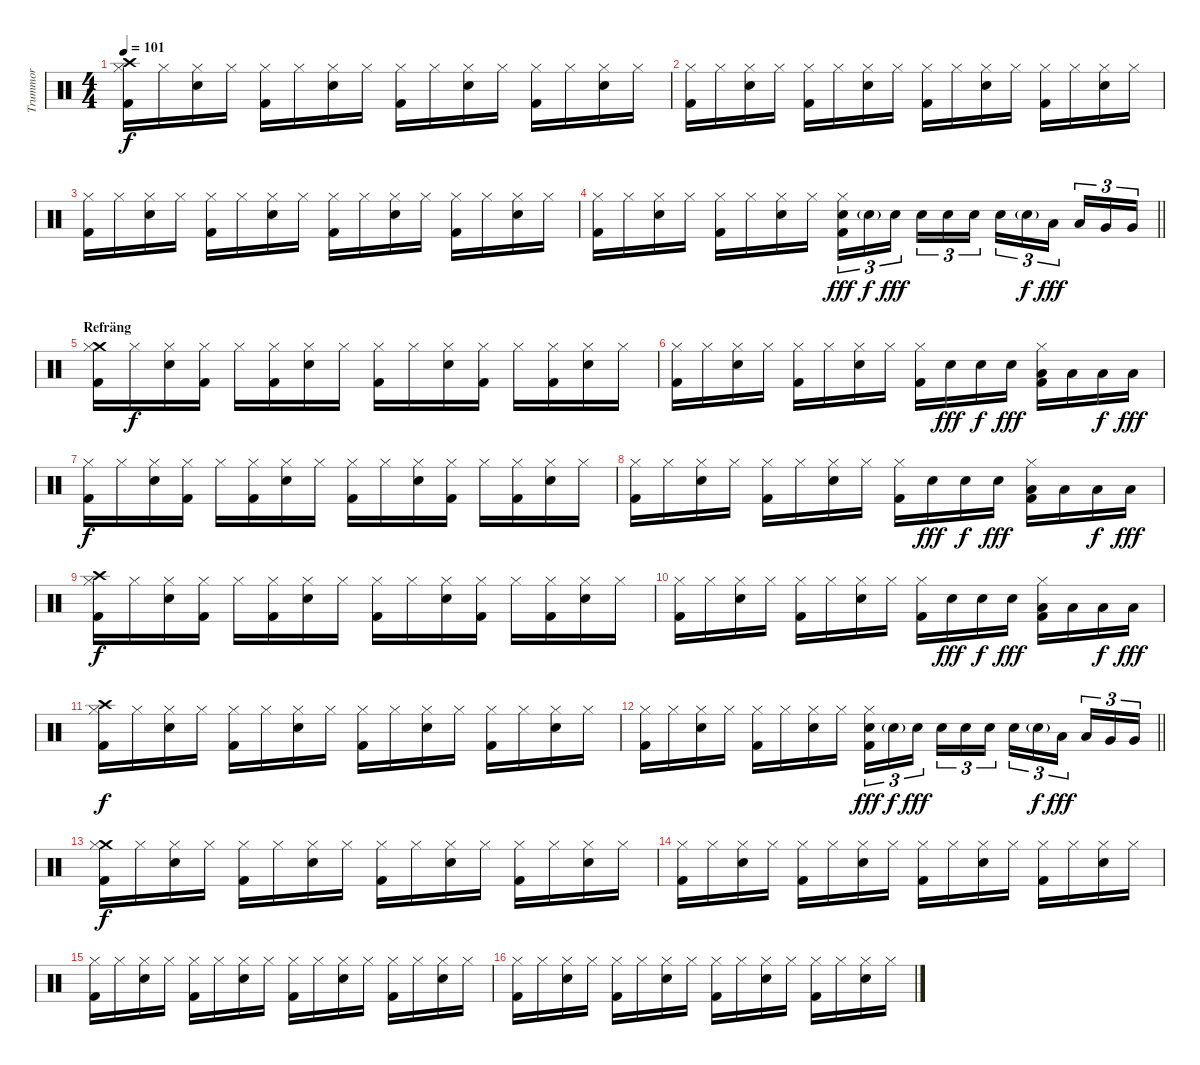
\track ("Trummor" "Trummor") {instrument percussion}
\staff {score}
\articulation defaults
\ts (4 4)
\tempo 101
\clef neutral
\ks c
("Crash high (hit)" "Hi-Hat (closed)" "Kick (hit) 2").16{dy f} "Hi-Hat (closed)".16 ("Hi-Hat (closed)" "Electric Snare (hit)").16 "Hi-Hat (closed)".16 ("Hi-Hat (closed)" "Kick (hit) 2").16 "Hi-Hat (closed)".16 ("Hi-Hat (closed)" "Electric Snare (hit)").16 "Hi-Hat (closed)".16 ("Hi-Hat (closed)" "Kick (hit) 2").16 "Hi-Hat (closed)".16 ("Hi-Hat (closed)" "Electric Snare (hit)").16 "Hi-Hat (closed)".16 ("Hi-Hat (closed)" "Kick (hit) 2").16 "Hi-Hat (closed)".16 ("Hi-Hat (closed)" "Electric Snare (hit)").16 "Hi-Hat (closed)".16 |
("Hi-Hat (closed)" "Kick (hit) 2").16 "Hi-Hat (closed)".16 ("Hi-Hat (closed)" "Electric Snare (hit)").16 "Hi-Hat (closed)".16 ("Hi-Hat (closed)" "Kick (hit) 2").16 "Hi-Hat (closed)".16 ("Hi-Hat (closed)" "Electric Snare (hit)").16 "Hi-Hat (closed)".16 ("Hi-Hat (closed)" "Kick (hit) 2").16 "Hi-Hat (closed)".16 ("Hi-Hat (closed)" "Electric Snare (hit)").16 "Hi-Hat (closed)".16 ("Hi-Hat (closed)" "Kick (hit) 2").16 "Hi-Hat (closed)".16 ("Hi-Hat (closed)" "Electric Snare (hit)").16 "Hi-Hat (closed)".16 |
("Hi-Hat (closed)" "Kick (hit) 2").16 "Hi-Hat (closed)".16 ("Hi-Hat (closed)" "Electric Snare (hit)").16 "Hi-Hat (closed)".16 ("Hi-Hat (closed)" "Kick (hit) 2").16 "Hi-Hat (closed)".16 ("Hi-Hat (closed)" "Electric Snare (hit)").16 "Hi-Hat (closed)".16 ("Hi-Hat (closed)" "Kick (hit) 2").16 "Hi-Hat (closed)".16 ("Hi-Hat (closed)" "Electric Snare (hit)").16 "Hi-Hat (closed)".16 ("Hi-Hat (closed)" "Kick (hit) 2").16 "Hi-Hat (closed)".16 ("Hi-Hat (closed)" "Electric Snare (hit)").16 "Hi-Hat (closed)".16 |
\barLineRight lightlight
("Hi-Hat (closed)" "Kick (hit) 2").16 "Hi-Hat (closed)".16 ("Hi-Hat (closed)" "Electric Snare (hit)").16 "Hi-Hat (closed)".16 ("Hi-Hat (closed)" "Kick (hit) 2").16 "Hi-Hat (closed)".16 ("Hi-Hat (closed)" "Electric Snare (hit)").16 "Hi-Hat (closed)".16 ("Electric Snare (hit)" "Hi-Hat (closed)" "Kick (hit) 2").16{tu (3 2) dy fff} "Electric Snare (hit)"{g}.16{tu (3 2) dy f} "Electric Snare (hit)".16{tu (3 2) dy fff beam splitsecondary} "Electric Snare (hit)".16{tu (3 2)} "Electric Snare (hit)".16{tu (3 2)} "Electric Snare (hit)".16{tu (3 2)} "Snare (hit) 2".16{tu (3 2)} "Electric Snare (hit)"{g}.16{tu (3 2) dy f} "Low Tom (hit)".16{tu (3 2) dy fff beam splitsecondary} "Low Tom (hit)".16{tu (3 2)} "Very Low Tom (hit)".16{tu (3 2)} "Very Low Tom (hit)".16{tu (3 2)} |
\section ("" "Refräng")
("Crash medium (hit)" "Hi-Hat (closed)" "Kick (hit) 2").16 "Hi-Hat (closed)".16{dy f} ("Hi-Hat (closed)" "Electric Snare (hit)").16 ("Hi-Hat (closed)" "Kick (hit) 2").16 "Hi-Hat (closed)".16 ("Hi-Hat (closed)" "Kick (hit) 2").16 ("Hi-Hat (closed)" "Electric Snare (hit)").16 "Hi-Hat (closed)".16 ("Hi-Hat (closed)" "Kick (hit) 2").16 "Hi-Hat (closed)".16 ("Hi-Hat (closed)" "Electric Snare (hit)").16 ("Hi-Hat (closed)" "Kick (hit) 2").16 "Hi-Hat (closed)".16 ("Hi-Hat (closed)" "Kick (hit) 2").16 ("Hi-Hat (closed)" "Electric Snare (hit)").16 "Hi-Hat (closed)".16 |
("Hi-Hat (closed)" "Kick (hit) 2").16 "Hi-Hat (closed)".16 ("Hi-Hat (closed)" "Electric Snare (hit)").16 "Hi-Hat (closed)".16 ("Hi-Hat (closed)" "Kick (hit) 2").16 "Hi-Hat (closed)".16 ("Hi-Hat (closed)" "Electric Snare (hit)").16 "Hi-Hat (closed)".16 ("Hi-Hat (closed)" "Kick (hit) 2").16 "Electric Snare (hit)".16{dy fff} "Electric Snare (hit)".16{dy f} "Electric Snare (hit)".16{dy fff} ("Hi-Hat (closed)" "Low Tom (hit)" "Kick (hit) 2").16 "Low Tom (hit)".16 "Low Tom (hit)".16{dy f} "Low Tom (hit)".16{dy fff} |
("Hi-Hat (closed)" "Kick (hit) 2").16{dy f} "Hi-Hat (closed)".16 ("Hi-Hat (closed)" "Electric Snare (hit)").16 ("Hi-Hat (closed)" "Kick (hit) 2").16 "Hi-Hat (closed)".16 ("Hi-Hat (closed)" "Kick (hit) 2").16 ("Hi-Hat (closed)" "Electric Snare (hit)").16 "Hi-Hat (closed)".16 ("Hi-Hat (closed)" "Kick (hit) 2").16 "Hi-Hat (closed)".16 ("Hi-Hat (closed)" "Electric Snare (hit)").16 ("Hi-Hat (closed)" "Kick (hit) 2").16 "Hi-Hat (closed)".16 ("Hi-Hat (closed)" "Kick (hit) 2").16 ("Hi-Hat (closed)" "Electric Snare (hit)").16 "Hi-Hat (closed)".16 |
("Hi-Hat (closed)" "Kick (hit) 2").16 "Hi-Hat (closed)".16 ("Hi-Hat (closed)" "Electric Snare (hit)").16 "Hi-Hat (closed)".16 ("Hi-Hat (closed)" "Kick (hit) 2").16 "Hi-Hat (closed)".16 ("Hi-Hat (closed)" "Electric Snare (hit)").16 "Hi-Hat (closed)".16 ("Hi-Hat (closed)" "Kick (hit) 2").16 "Electric Snare (hit)".16{dy fff} "Electric Snare (hit)".16{dy f} "Electric Snare (hit)".16{dy fff} ("Hi-Hat (closed)" "Low Tom (hit)" "Kick (hit) 2").16 "Low Tom (hit)".16 "Low Tom (hit)".16{dy f} "Low Tom (hit)".16{dy fff} |
("Crash high (hit)" "Hi-Hat (closed)" "Kick (hit) 2").16{dy f} "Hi-Hat (closed)".16 ("Hi-Hat (closed)" "Electric Snare (hit)").16 ("Hi-Hat (closed)" "Kick (hit) 2").16 "Hi-Hat (closed)".16 ("Hi-Hat (closed)" "Kick (hit) 2").16 ("Hi-Hat (closed)" "Electric Snare (hit)").16 "Hi-Hat (closed)".16 ("Hi-Hat (closed)" "Kick (hit) 2").16 "Hi-Hat (closed)".16 ("Hi-Hat (closed)" "Electric Snare (hit)").16 ("Hi-Hat (closed)" "Kick (hit) 2").16 "Hi-Hat (closed)".16 ("Hi-Hat (closed)" "Kick (hit) 2").16 ("Hi-Hat (closed)" "Electric Snare (hit)").16 "Hi-Hat (closed)".16 |
("Hi-Hat (closed)" "Kick (hit) 2").16 "Hi-Hat (closed)".16 ("Hi-Hat (closed)" "Electric Snare (hit)").16 "Hi-Hat (closed)".16 ("Hi-Hat (closed)" "Kick (hit) 2").16 "Hi-Hat (closed)".16 ("Hi-Hat (closed)" "Electric Snare (hit)").16 "Hi-Hat (closed)".16 ("Hi-Hat (closed)" "Kick (hit) 2").16 "Electric Snare (hit)".16{dy fff} "Electric Snare (hit)".16{dy f} "Electric Snare (hit)".16{dy fff} ("Hi-Hat (closed)" "Low Tom (hit)" "Kick (hit) 2").16 "Low Tom (hit)".16 "Low Tom (hit)".16{dy f} "Low Tom (hit)".16{dy fff} |
("Crash high (hit)" "Hi-Hat (closed)" "Kick (hit) 2").16{dy f} "Hi-Hat (closed)".16 ("Hi-Hat (closed)" "Electric Snare (hit)").16 "Hi-Hat (closed)".16 ("Hi-Hat (closed)" "Kick (hit) 2").16 "Hi-Hat (closed)".16 ("Hi-Hat (closed)" "Electric Snare (hit)").16 "Hi-Hat (closed)".16 ("Hi-Hat (closed)" "Kick (hit) 2").16 "Hi-Hat (closed)".16 ("Hi-Hat (closed)" "Electric Snare (hit)").16 "Hi-Hat (closed)".16 ("Hi-Hat (closed)" "Kick (hit) 2").16 "Hi-Hat (closed)".16 ("Hi-Hat (closed)" "Electric Snare (hit)").16 "Hi-Hat (closed)".16 |
\barLineRight lightlight
("Hi-Hat (closed)" "Kick (hit) 2").16 "Hi-Hat (closed)".16 ("Hi-Hat (closed)" "Electric Snare (hit)").16 "Hi-Hat (closed)".16 ("Hi-Hat (closed)" "Kick (hit) 2").16 "Hi-Hat (closed)".16 ("Hi-Hat (closed)" "Electric Snare (hit)").16 "Hi-Hat (closed)".16 ("Electric Snare (hit)" "Hi-Hat (closed)" "Kick (hit) 2").16{tu (3 2) dy fff} "Electric Snare (hit)"{g}.16{tu (3 2) dy f} "Electric Snare (hit)".16{tu (3 2) dy fff beam splitsecondary} "Electric Snare (hit)".16{tu (3 2)} "Electric Snare (hit)".16{tu (3 2)} "Electric Snare (hit)".16{tu (3 2)} "Snare (hit) 2".16{tu (3 2)} "Electric Snare (hit)"{g}.16{tu (3 2) dy f} "Low Tom (hit)".16{tu (3 2) dy fff beam splitsecondary} "Low Tom (hit)".16{tu (3 2)} "Very Low Tom (hit)".16{tu (3 2)} "Very Low Tom (hit)".16{tu (3 2)} |
("Crash medium (hit)" "Hi-Hat (closed)" "Kick (hit) 2").16{dy f} "Hi-Hat (closed)".16 ("Hi-Hat (closed)" "Electric Snare (hit)").16 "Hi-Hat (closed)".16 ("Hi-Hat (closed)" "Kick (hit) 2").16 "Hi-Hat (closed)".16 ("Hi-Hat (closed)" "Electric Snare (hit)").16 "Hi-Hat (closed)".16 ("Hi-Hat (closed)" "Kick (hit) 2").16 "Hi-Hat (closed)".16 ("Hi-Hat (closed)" "Electric Snare (hit)").16 "Hi-Hat (closed)".16 ("Hi-Hat (closed)" "Kick (hit) 2").16 "Hi-Hat (closed)".16 ("Hi-Hat (closed)" "Electric Snare (hit)").16 "Hi-Hat (closed)".16 |
("Hi-Hat (closed)" "Kick (hit) 2").16 "Hi-Hat (closed)".16 ("Hi-Hat (closed)" "Electric Snare (hit)").16 "Hi-Hat (closed)".16 ("Hi-Hat (closed)" "Kick (hit) 2").16 "Hi-Hat (closed)".16 ("Hi-Hat (closed)" "Electric Snare (hit)").16 "Hi-Hat (closed)".16 ("Hi-Hat (closed)" "Kick (hit) 2").16 "Hi-Hat (closed)".16 ("Hi-Hat (closed)" "Electric Snare (hit)").16 "Hi-Hat (closed)".16 ("Hi-Hat (closed)" "Kick (hit) 2").16 "Hi-Hat (closed)".16 ("Hi-Hat (closed)" "Electric Snare (hit)").16 "Hi-Hat (closed)".16 |
("Hi-Hat (closed)" "Kick (hit) 2").16 "Hi-Hat (closed)".16 ("Hi-Hat (closed)" "Electric Snare (hit)").16 "Hi-Hat (closed)".16 ("Hi-Hat (closed)" "Kick (hit) 2").16 "Hi-Hat (closed)".16 ("Hi-Hat (closed)" "Electric Snare (hit)").16 "Hi-Hat (closed)".16 ("Hi-Hat (closed)" "Kick (hit) 2").16 "Hi-Hat (closed)".16 ("Hi-Hat (closed)" "Electric Snare (hit)").16 "Hi-Hat (closed)".16 ("Hi-Hat (closed)" "Kick (hit) 2").16 "Hi-Hat (closed)".16 ("Hi-Hat (closed)" "Electric Snare (hit)").16 "Hi-Hat (closed)".16 |
("Hi-Hat (closed)" "Kick (hit) 2").16 "Hi-Hat (closed)".16 ("Hi-Hat (closed)" "Electric Snare (hit)").16 "Hi-Hat (closed)".16 ("Hi-Hat (closed)" "Kick (hit) 2").16 "Hi-Hat (closed)".16 ("Hi-Hat (closed)" "Electric Snare (hit)").16 "Hi-Hat (closed)".16 ("Hi-Hat (closed)" "Kick (hit) 2").16 "Hi-Hat (closed)".16 ("Hi-Hat (closed)" "Electric Snare (hit)").16 "Hi-Hat (closed)".16 ("Hi-Hat (closed)" "Kick (hit) 2").16 "Hi-Hat (closed)".16 ("Hi-Hat (closed)" "Electric Snare (hit)").16 "Hi-Hat (closed)".16
